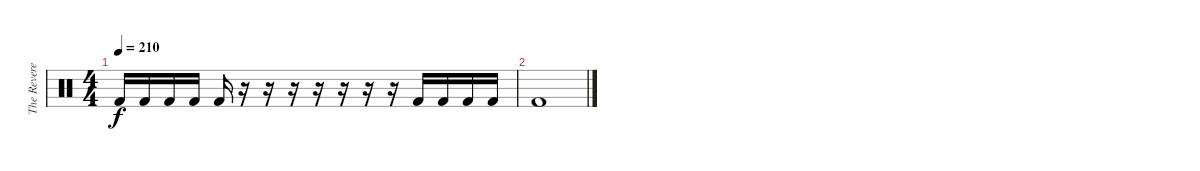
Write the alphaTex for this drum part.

\track ("The Reverend" "The Revere") {instrument percussion}
\staff {score}
\articulation defaults
\ts (4 4)
\tempo 210
\clef neutral
\ks c "Kick (hit) 2".16{dy f} "Kick (hit) 2".16 "Kick (hit) 2".16 "Kick (hit) 2".16 "Kick (hit) 2".16
r.16 r.16 r.16 r.16 r.16 r.16 r.16 "Kick (hit) 2".16 "Kick (hit) 2".16 "Kick (hit) 2".16 "Kick (hit) 2".16 |
"Kick (hit) 2".1
